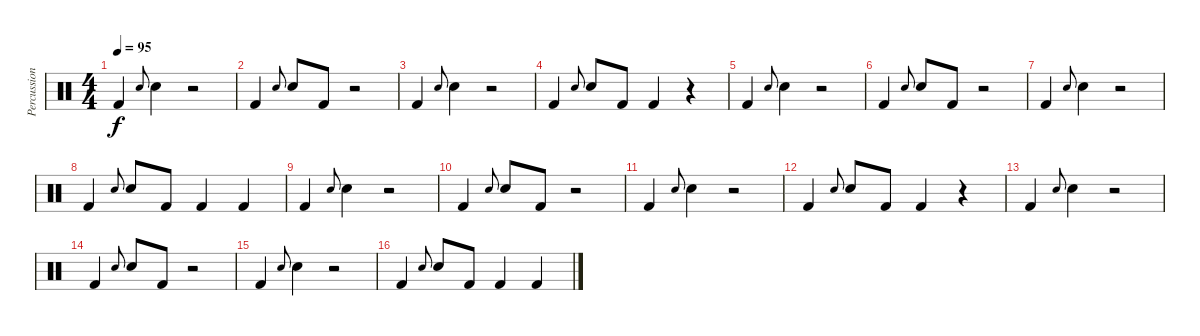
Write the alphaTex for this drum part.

\track ("Percussion" "Percussion") {instrument percussion}
\staff {score}
\articulation defaults
\ts (4 4)
\tempo 95
\clef neutral
\ks c "Kick (hit) 2".4{dy f} "Electric Snare (hit)".8{gr onbeat} "Electric Snare (hit)".4
r.2 |
"Kick (hit) 2".4 "Electric Snare (hit)".8{gr onbeat} "Electric Snare (hit)".8 "Kick (hit) 2".8 r.2 |
"Kick (hit) 2".4 "Electric Snare (hit)".8{gr onbeat} "Electric Snare (hit)".4 r.2 |
"Kick (hit) 2".4 "Electric Snare (hit)".8{gr onbeat} "Electric Snare (hit)".8 "Kick (hit) 2".8 "Kick (hit) 2".4 r.4 |
"Kick (hit) 2".4 "Electric Snare (hit)".8{gr onbeat} "Electric Snare (hit)".4 r.2 |
"Kick (hit) 2".4 "Electric Snare (hit)".8{gr onbeat} "Electric Snare (hit)".8 "Kick (hit) 2".8 r.2 |
"Kick (hit) 2".4 "Electric Snare (hit)".8{gr onbeat} "Electric Snare (hit)".4 r.2 |
"Kick (hit) 2".4 "Electric Snare (hit)".8{gr onbeat} "Electric Snare (hit)".8 "Kick (hit) 2".8 "Kick (hit) 2".4 "Kick (hit) 2".4 |
"Kick (hit) 2".4 "Electric Snare (hit)".8{gr onbeat} "Electric Snare (hit)".4 r.2 |
"Kick (hit) 2".4 "Electric Snare (hit)".8{gr onbeat} "Electric Snare (hit)".8 "Kick (hit) 2".8 r.2 |
"Kick (hit) 2".4 "Electric Snare (hit)".8{gr onbeat} "Electric Snare (hit)".4 r.2 |
"Kick (hit) 2".4 "Electric Snare (hit)".8{gr onbeat} "Electric Snare (hit)".8 "Kick (hit) 2".8 "Kick (hit) 2".4 r.4 |
"Kick (hit) 2".4 "Electric Snare (hit)".8{gr onbeat} "Electric Snare (hit)".4 r.2 |
"Kick (hit) 2".4 "Electric Snare (hit)".8{gr onbeat} "Electric Snare (hit)".8 "Kick (hit) 2".8 r.2 |
"Kick (hit) 2".4 "Electric Snare (hit)".8{gr onbeat} "Electric Snare (hit)".4 r.2 |
"Kick (hit) 2".4 "Electric Snare (hit)".8{gr onbeat} "Electric Snare (hit)".8 "Kick (hit) 2".8 "Kick (hit) 2".4 "Kick (hit) 2".4
